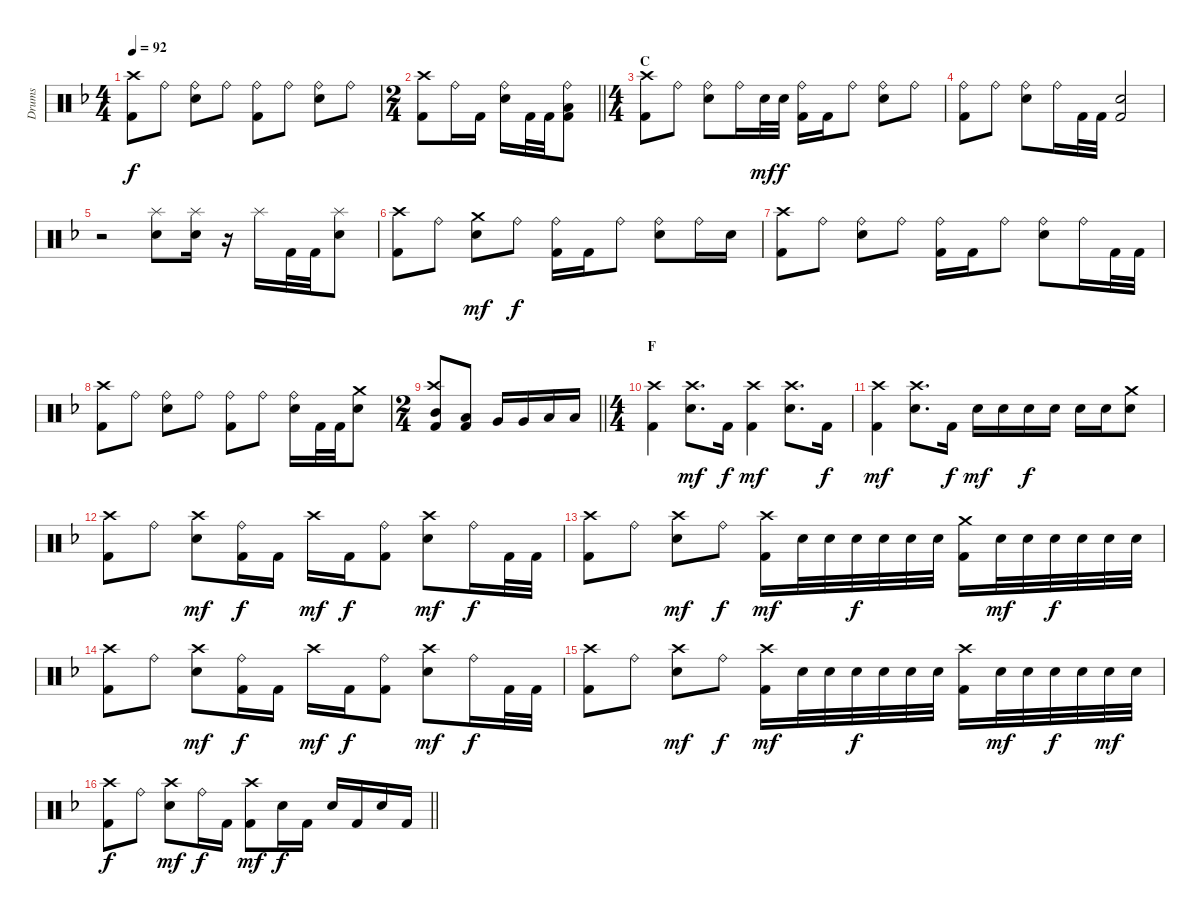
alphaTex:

\track ("Drums" "Drums") {instrument percussion}
\staff {score}
\articulation defaults
\ts (4 4)
\tempo 92
\clef neutral
\ks f
("Kick (hit) 2" "Crash high (hit)").8{dy f} "Ride (bell)".8 ("Ride (bell)" "Snare (hit) 2").8 "Ride (bell)".8 ("Ride (bell)" "Kick (hit) 2").8 "Ride (bell)".8 ("Ride (bell)" "Snare (hit) 2").8 "Ride (bell)".8 |
\ts (2 4)
\barLineRight lightlight
("Kick (hit) 2" "Crash high (hit)").8 "Ride (bell)".16 "Kick (hit) 2".16 ("Ride (bell)" "Snare (hit) 2").16 "Kick (hit) 2".32 "Kick (hit) 2".32 ("Ride (bell)" "Kick (hit) 2" "Low Tom (hit)").8 |
\ts (4 4)
\section ("" "C")
("Crash high (hit)" "Kick (hit) 2").8 "Ride (bell)".8 ("Ride (bell)" "Snare (hit) 2").8 "Ride (bell)".16 "Snare (hit) 2".32{dy mf} "Snare (hit) 2".32{dy f} ("Ride (bell)" "Kick (hit) 2").16 "Kick (hit) 2".16 "Ride (bell)".8 ("Ride (bell)" "Snare (hit) 2").8 "Ride (bell)".8 |
("Ride (bell)" "Kick (hit) 2").8 "Ride (bell)".8 ("Ride (bell)" "Snare (hit) 2").8 "Ride (bell)".16 "Kick (hit) 2".32 "Kick (hit) 2".32 ("Snare (hit) 2" "Kick (hit) 2").2 |
r.2 ("Snare (hit) 2" "Splash (hit)").8 ("Splash (hit)" "Snare (hit) 2").16 r.16 "Splash (hit)".16 "Kick (hit) 2".32 "Kick (hit) 2".32 ("Splash (hit)" "Snare (hit) 2").8 |
("Crash high (hit)" "Kick (hit) 2").8 "Ride (bell)".8 ("Crash medium (hit)" "Snare (hit) 2").8{dy mf} "Ride (bell)".8{dy f} ("Ride (bell)" "Kick (hit) 2").16 "Kick (hit) 2".16 "Ride (bell)".8 ("Ride (bell)" "Snare (hit) 2").8 "Ride (bell)".16 "Snare (hit) 2".16 |
("Crash high (hit)" "Kick (hit) 2").8 "Ride (bell)".8 ("Ride (bell)" "Snare (hit) 2").8 "Ride (bell)".8 ("Ride (bell)" "Kick (hit) 2").16 "Kick (hit) 2".16 "Ride (bell)".8 ("Ride (bell)" "Snare (hit) 2").8 "Ride (bell)".16 "Kick (hit) 2".32 "Kick (hit) 2".32 |
("Crash high (hit)" "Kick (hit) 2").8 "Ride (bell)".8 ("Ride (bell)" "Snare (hit) 2").8 "Ride (bell)".8 ("Ride (bell)" "Kick (hit) 2").8 "Ride (bell)".8 ("Ride (bell)" "Snare (hit) 2").16 "Kick (hit) 2".32 "Kick (hit) 2".32 ("Crash medium (hit)" "Snare (hit) 2").8 |
\ts (2 4)
\barLineRight lightlight
("Crash high (hit)" "Kick (hit) 2" "Mid Tom (hit)").8 ("Kick (hit) 2" "Low Tom (hit)").8 "Very Low Tom (hit)".16 "Very Low Tom (hit)".16 "Low Floor Tom (hit)".16 "Low Floor Tom (hit)".16 |
\ts (4 4)
\section ("" "F")
("Crash high (hit)" "Kick (hit) 2").4 ("Crash high (hit)" "Snare (hit) 2").8{d dy mf} "Kick (hit) 2".16{dy f} ("Crash high (hit)" "Kick (hit) 2").4{dy mf} ("Crash high (hit)" "Snare (hit) 2").8{d} "Kick (hit) 2".16{dy f} |
("Crash high (hit)" "Kick (hit) 2").4{dy mf} ("Crash high (hit)" "Snare (hit) 2").8{d} "Kick (hit) 2".16{dy f} "Snare (hit) 2".16{dy mf} "Snare (hit) 2".16 "Snare (hit) 2".16{dy f} "Snare (hit) 2".16 "Snare (hit) 2".16 "Snare (hit) 2".16 ("Snare (hit) 2" "Crash medium (hit)").8 |
("Crash high (hit)" "Kick (hit) 2").8 "Ride (bell)".8 ("Crash high (hit)" "Snare (hit) 2").8{dy mf} ("Ride (bell)" "Kick (hit) 2").16{dy f} "Kick (hit) 2".16 "Crash high (hit)".16{dy mf} "Kick (hit) 2".16{dy f} ("Ride (bell)" "Kick (hit) 2").8 ("Crash high (hit)" "Snare (hit) 2").8{dy mf} "Ride (bell)".16{dy f} "Kick (hit) 2".32 "Kick (hit) 2".32 |
("Crash high (hit)" "Kick (hit) 2").8 "Ride (bell)".8 ("Crash high (hit)" "Snare (hit) 2").8{dy mf} "Ride (bell)".8{dy f} ("Crash high (hit)" "Kick (hit) 2").16{dy mf} "Snare (hit) 2".32 "Snare (hit) 2".32 "Snare (hit) 2".32{dy f} "Snare (hit) 2".32 "Snare (hit) 2".32 "Snare (hit) 2".32 ("Crash medium (hit)" "Kick (hit) 2").16 "Snare (hit) 2".32{dy mf} "Snare (hit) 2".32 "Snare (hit) 2".32{dy f} "Snare (hit) 2".32 "Snare (hit) 2".32 "Snare (hit) 2".32 |
("Crash high (hit)" "Kick (hit) 2").8 "Ride (bell)".8 ("Crash high (hit)" "Snare (hit) 2").8{dy mf} ("Ride (bell)" "Kick (hit) 2").16{dy f} "Kick (hit) 2".16 "Crash high (hit)".16{dy mf} "Kick (hit) 2".16{dy f} ("Ride (bell)" "Kick (hit) 2").8 ("Crash high (hit)" "Snare (hit) 2").8{dy mf} "Ride (bell)".16{dy f} "Kick (hit) 2".32 "Kick (hit) 2".32 |
("Crash high (hit)" "Kick (hit) 2").8 "Ride (bell)".8 ("Crash high (hit)" "Snare (hit) 2").8{dy mf} "Ride (bell)".8{dy f} ("Crash high (hit)" "Kick (hit) 2").16{dy mf} "Snare (hit) 2".32 "Snare (hit) 2".32 "Snare (hit) 2".32{dy f} "Snare (hit) 2".32 "Snare (hit) 2".32 "Snare (hit) 2".32 ("Crash high (hit)" "Kick (hit) 2").16 "Snare (hit) 2".32{dy mf} "Snare (hit) 2".32 "Snare (hit) 2".32{dy f} "Snare (hit) 2".32 "Snare (hit) 2".32{dy mf} "Snare (hit) 2".32 |
\barLineRight lightlight
("Crash high (hit)" "Kick (hit) 2").8{dy f} "Ride (bell)".8 ("Crash high (hit)" "Snare (hit) 2").8{dy mf} "Ride (bell)".16{dy f} "Kick (hit) 2".16 ("Crash high (hit)" "Kick (hit) 2").8{dy mf} "Snare (hit) 2".16{dy f} "Kick (hit) 2".16 "Snare (hit) 2".16 "Kick (hit) 2".16 "Snare (hit) 2".16 "Kick (hit) 2".16
